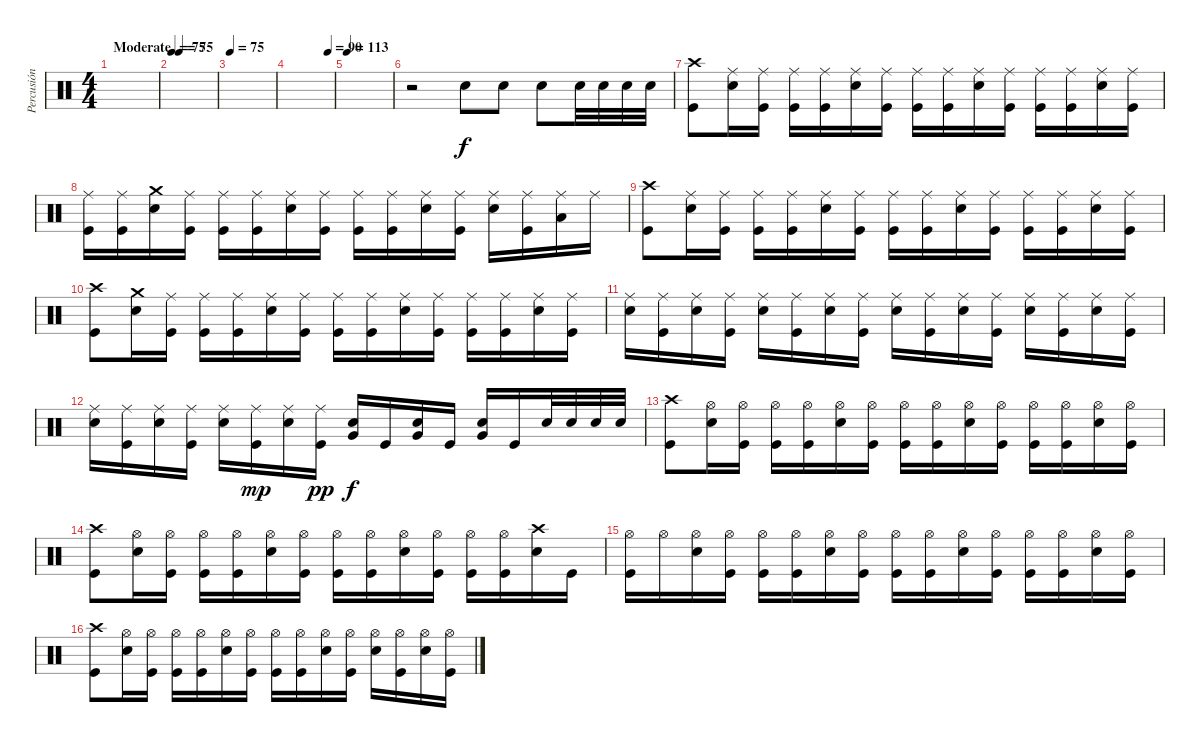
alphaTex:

\track ("Percusión" "Percusión") {instrument percussion}
\staff {score}
\articulation defaults
\ts (4 4)
\tempo (75 "Moderate")
\clef neutral
\ks c
|
\tempo 75
|
\tempo 75
|
\tempo (90 0.875)
|
\tempo 113
|
r.2 "Snare (hit) 2".8 "Snare (hit) 2".8 "Snare (hit) 2".8 "Snare (hit) 2".32 "Snare (hit) 2".32 "Snare (hit) 2".32 "Snare (hit) 2".32 |
("Crash high (hit)" "Kick (hit)").8 ("Ride (middle)" "Snare (hit) 2").16 ("Ride (middle)" "Kick (hit)").16 ("Ride (middle)" "Kick (hit)").16 ("Ride (middle)" "Kick (hit)").16 ("Ride (middle)" "Snare (hit) 2").16 ("Ride (middle)" "Kick (hit)").16 ("Ride (middle)" "Kick (hit)").16 ("Ride (middle)" "Kick (hit)").16 ("Ride (middle)" "Snare (hit) 2").16 ("Ride (middle)" "Kick (hit)").16 ("Ride (middle)" "Kick (hit)").16 ("Ride (middle)" "Kick (hit)").16 ("Ride (middle)" "Snare (hit) 2").16 ("Ride (middle)" "Kick (hit)").16 |
("Ride (middle)" "Kick (hit)").16 ("Ride (middle)" "Kick (hit)").16 ("Crash medium (hit)" "Snare (hit) 2").16 ("Ride (middle)" "Kick (hit)").16 ("Ride (middle)" "Kick (hit)").16 ("Ride (middle)" "Kick (hit)").16 ("Ride (middle)" "Snare (hit) 2").16 ("Ride (middle)" "Kick (hit)").16 ("Ride (middle)" "Kick (hit)").16 ("Ride (middle)" "Kick (hit)").16 ("Ride (middle)" "Snare (hit) 2").16 ("Ride (middle)" "Kick (hit)").16 ("Ride (middle)" "Snare (hit) 2").16 ("Ride (middle)" "Kick (hit)").16 ("Ride (middle)" "Low Tom (hit)").16 "Ride (middle)".16 |
("Crash high (hit)" "Kick (hit)").8 ("Ride (middle)" "Snare (hit) 2").16 ("Ride (middle)" "Kick (hit)").16 ("Ride (middle)" "Kick (hit)").16 ("Ride (middle)" "Kick (hit)").16 ("Ride (middle)" "Snare (hit) 2").16 ("Ride (middle)" "Kick (hit)").16 ("Ride (middle)" "Kick (hit)").16 ("Ride (middle)" "Kick (hit)").16 ("Ride (middle)" "Snare (hit) 2").16 ("Ride (middle)" "Kick (hit)").16 ("Ride (middle)" "Kick (hit)").16 ("Ride (middle)" "Kick (hit)").16 ("Ride (middle)" "Snare (hit) 2").16 ("Ride (middle)" "Kick (hit)").16 |
("Crash high (hit)" "Kick (hit)").8 ("Crash medium (hit)" "Snare (hit) 2").16 ("Ride (middle)" "Kick (hit)").16 ("Ride (middle)" "Kick (hit)").16 ("Ride (middle)" "Kick (hit)").16 ("Ride (middle)" "Snare (hit) 2").16 ("Ride (middle)" "Kick (hit)").16 ("Ride (middle)" "Kick (hit)").16 ("Ride (middle)" "Kick (hit)").16 ("Ride (middle)" "Snare (hit) 2").16 ("Ride (middle)" "Kick (hit)").16 ("Ride (middle)" "Kick (hit)").16 ("Ride (middle)" "Kick (hit)").16 ("Ride (middle)" "Snare (hit) 2").16 ("Ride (middle)" "Kick (hit)").16 |
("Ride (middle)" "Snare (hit) 2").16 ("Ride (middle)" "Kick (hit)").16 ("Ride (middle)" "Snare (hit) 2").16 ("Ride (middle)" "Kick (hit)").16 ("Ride (middle)" "Snare (hit) 2").16 ("Ride (middle)" "Kick (hit)").16 ("Ride (middle)" "Snare (hit) 2").16 ("Ride (middle)" "Kick (hit)").16 ("Ride (middle)" "Snare (hit) 2").16 ("Ride (middle)" "Kick (hit)").16 ("Ride (middle)" "Snare (hit) 2").16 ("Ride (middle)" "Kick (hit)").16 ("Ride (middle)" "Snare (hit) 2").16 ("Ride (middle)" "Kick (hit)").16 ("Ride (middle)" "Snare (hit) 2").16 ("Ride (middle)" "Kick (hit)").16 |
("Ride (middle)" "Snare (hit) 2").16 ("Ride (middle)" "Kick (hit)").16 ("Ride (middle)" "Snare (hit) 2").16 ("Ride (middle)" "Kick (hit)").16 ("Ride (middle)" "Snare (hit) 2").16 ("Ride (middle)" "Kick (hit)").16{dy mp} ("Ride (middle)" "Snare (hit) 2").16 ("Ride (middle)" "Kick (hit)").16{dy pp} ("Very Low Tom (hit)" "Snare (hit) 2").16{dy f} "Kick (hit)".16 ("Very Low Tom (hit)" "Snare (hit) 2").16 "Kick (hit)".16 ("Very Low Tom (hit)" "Snare (hit) 2").16 "Kick (hit)".16 "Snare (hit) 2".32 "Snare (hit) 2".32 "Snare (hit) 2".32 "Snare (hit) 2".32 |
("Crash high (hit)" "Kick (hit)").8 ("Hi-Hat (open)" "Snare (hit) 2").16 ("Hi-Hat (open)" "Kick (hit)").16 ("Hi-Hat (open)" "Kick (hit)").16 ("Hi-Hat (open)" "Kick (hit)").16 ("Hi-Hat (open)" "Snare (hit) 2").16 ("Hi-Hat (open)" "Kick (hit)").16 ("Hi-Hat (open)" "Kick (hit)").16 ("Hi-Hat (open)" "Kick (hit)").16 ("Hi-Hat (open)" "Snare (hit) 2").16 ("Hi-Hat (open)" "Kick (hit)").16 ("Hi-Hat (open)" "Kick (hit)").16 ("Hi-Hat (open)" "Kick (hit)").16 ("Hi-Hat (open)" "Snare (hit) 2").16 ("Hi-Hat (open)" "Kick (hit)").16 |
("Crash high (hit)" "Kick (hit)").8 ("Hi-Hat (open)" "Snare (hit) 2").16 ("Hi-Hat (open)" "Kick (hit)").16 ("Hi-Hat (open)" "Kick (hit)").16 ("Hi-Hat (open)" "Kick (hit)").16 ("Hi-Hat (open)" "Snare (hit) 2").16 ("Hi-Hat (open)" "Kick (hit)").16 ("Hi-Hat (open)" "Kick (hit)").16 ("Hi-Hat (open)" "Kick (hit)").16 ("Hi-Hat (open)" "Snare (hit) 2").16 ("Hi-Hat (open)" "Kick (hit)").16 ("Hi-Hat (open)" "Kick (hit)").16 ("Hi-Hat (open)" "Kick (hit)").16 ("Crash high (hit)" "Snare (hit) 2").16 "Kick (hit)".16 |
("Hi-Hat (open)" "Kick (hit)").16 "Hi-Hat (open)".16 ("Hi-Hat (open)" "Snare (hit) 2").16 ("Hi-Hat (open)" "Kick (hit)").16 ("Hi-Hat (open)" "Kick (hit)").16 ("Hi-Hat (open)" "Kick (hit)").16 ("Hi-Hat (open)" "Snare (hit) 2").16 ("Hi-Hat (open)" "Kick (hit)").16 ("Hi-Hat (open)" "Kick (hit)").16 ("Hi-Hat (open)" "Kick (hit)").16 ("Hi-Hat (open)" "Snare (hit) 2").16 ("Hi-Hat (open)" "Kick (hit)").16 ("Hi-Hat (open)" "Kick (hit)").16 ("Hi-Hat (open)" "Kick (hit)").16 ("Hi-Hat (open)" "Snare (hit) 2").16 ("Hi-Hat (open)" "Kick (hit)").16 |
("Crash high (hit)" "Kick (hit)").8 ("Hi-Hat (open)" "Snare (hit) 2").16 ("Hi-Hat (open)" "Kick (hit)").16 ("Hi-Hat (open)" "Kick (hit)").16 ("Hi-Hat (open)" "Kick (hit)").16 ("Hi-Hat (open)" "Snare (hit) 2").16 ("Hi-Hat (open)" "Kick (hit)").16 ("Hi-Hat (open)" "Kick (hit)").16 ("Hi-Hat (open)" "Kick (hit)").16 ("Hi-Hat (open)" "Snare (hit) 2").16 ("Hi-Hat (open)" "Kick (hit)").16 ("Hi-Hat (open)" "Snare (hit) 2").16 ("Hi-Hat (open)" "Kick (hit)").16 ("Hi-Hat (open)" "Snare (hit) 2").16 ("Hi-Hat (open)" "Kick (hit)").16
